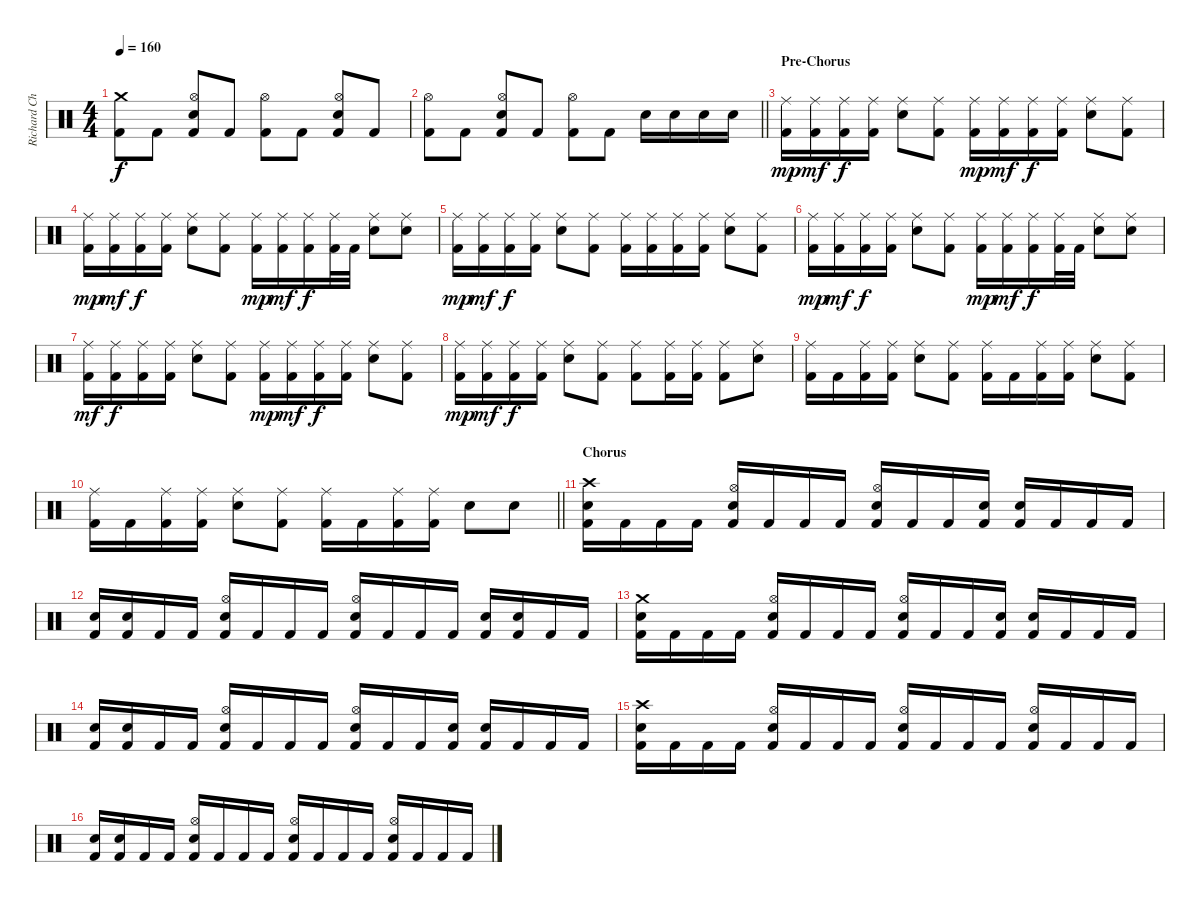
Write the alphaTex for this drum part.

\track ("Richard Christy" "Richard Ch") {instrument percussion}
\staff {score}
\articulation defaults
\ts (4 4)
\tempo 160
\clef neutral
\ks c
("Crash medium (hit)" "Kick (hit) 2").8{dy f} "Kick (hit) 2".8 ("Hi-Hat (open)" "Snare (hit) 2" "Kick (hit) 2").8 "Kick (hit) 2".8 ("Hi-Hat (open)" "Kick (hit) 2").8 "Kick (hit) 2".8 ("Hi-Hat (open)" "Snare (hit) 2" "Kick (hit) 2").8 "Kick (hit) 2".8 |
\barLineRight lightlight
("Hi-Hat (open)" "Kick (hit) 2").8 "Kick (hit) 2".8 ("Hi-Hat (open)" "Snare (hit) 2" "Kick (hit) 2").8 "Kick (hit) 2".8 ("Hi-Hat (open)" "Kick (hit) 2").8 "Kick (hit) 2".8 "Snare (hit) 2".16 "Snare (hit) 2".16 "Snare (hit) 2".16 "Snare (hit) 2".16 |
\section ("" "Pre-Chorus")
("Ride (middle)" "Kick (hit) 2").16{dy mp} ("Ride (middle)" "Kick (hit) 2").16{dy mf} ("Ride (middle)" "Kick (hit) 2").16{dy f} ("Ride (middle)" "Kick (hit) 2").16 ("Ride (middle)" "Snare (hit) 2").8 ("Ride (middle)" "Kick (hit) 2").8 ("Ride (middle)" "Kick (hit) 2").16{dy mp} ("Ride (middle)" "Kick (hit) 2").16{dy mf} ("Ride (middle)" "Kick (hit) 2").16{dy f} ("Ride (middle)" "Kick (hit) 2").16 ("Ride (middle)" "Snare (hit) 2").8 ("Ride (middle)" "Kick (hit) 2").8 |
("Ride (middle)" "Kick (hit) 2").16{dy mp} ("Ride (middle)" "Kick (hit) 2").16{dy mf} ("Ride (middle)" "Kick (hit) 2").16{dy f} ("Ride (middle)" "Kick (hit) 2").16 ("Ride (middle)" "Snare (hit) 2").8 ("Ride (middle)" "Kick (hit) 2").8 ("Ride (middle)" "Kick (hit) 2").16{dy mp} ("Ride (middle)" "Kick (hit) 2").16{dy mf} ("Ride (middle)" "Kick (hit) 2").16{dy f} ("Ride (middle)" "Kick (hit) 2").32 "Kick (hit) 2".32 ("Ride (middle)" "Snare (hit) 2").8 ("Ride (middle)" "Snare (hit) 2").8 |
("Ride (middle)" "Kick (hit) 2").16{dy mp} ("Ride (middle)" "Kick (hit) 2").16{dy mf} ("Ride (middle)" "Kick (hit) 2").16{dy f} ("Ride (middle)" "Kick (hit) 2").16 ("Ride (middle)" "Snare (hit) 2").8 ("Ride (middle)" "Kick (hit) 2").8 ("Ride (middle)" "Kick (hit) 2").16 ("Ride (middle)" "Kick (hit) 2").16 ("Ride (middle)" "Kick (hit) 2").16 ("Ride (middle)" "Kick (hit) 2").16 ("Ride (middle)" "Snare (hit) 2").8 ("Ride (middle)" "Kick (hit) 2").8 |
("Ride (middle)" "Kick (hit) 2").16{dy mp} ("Ride (middle)" "Kick (hit) 2").16{dy mf} ("Ride (middle)" "Kick (hit) 2").16{dy f} ("Ride (middle)" "Kick (hit) 2").16 ("Ride (middle)" "Snare (hit) 2").8 ("Ride (middle)" "Kick (hit) 2").8 ("Ride (middle)" "Kick (hit) 2").16{dy mp} ("Ride (middle)" "Kick (hit) 2").16{dy mf} ("Ride (middle)" "Kick (hit) 2").16{dy f} ("Ride (middle)" "Kick (hit) 2").32 "Kick (hit) 2".32 ("Ride (middle)" "Snare (hit) 2").8 ("Ride (middle)" "Snare (hit) 2").8 |
("Ride (middle)" "Kick (hit) 2").16{dy mf} ("Ride (middle)" "Kick (hit) 2").16{dy f} ("Ride (middle)" "Kick (hit) 2").16 ("Ride (middle)" "Kick (hit) 2").16 ("Ride (middle)" "Snare (hit) 2").8 ("Ride (middle)" "Kick (hit) 2").8 ("Ride (middle)" "Kick (hit) 2").16{dy mp} ("Ride (middle)" "Kick (hit) 2").16{dy mf} ("Ride (middle)" "Kick (hit) 2").16{dy f} ("Ride (middle)" "Kick (hit) 2").16 ("Ride (middle)" "Snare (hit) 2").8 ("Ride (middle)" "Kick (hit) 2").8 |
("Ride (middle)" "Kick (hit) 2").16{dy mp} ("Ride (middle)" "Kick (hit) 2").16{dy mf} ("Ride (middle)" "Kick (hit) 2").16{dy f} ("Ride (middle)" "Kick (hit) 2").16 ("Ride (middle)" "Snare (hit) 2").8 ("Ride (middle)" "Kick (hit) 2").8 ("Ride (middle)" "Kick (hit) 2").8 ("Ride (middle)" "Kick (hit) 2").16 ("Ride (middle)" "Kick (hit) 2").16 ("Ride (middle)" "Kick (hit) 2").8 ("Ride (middle)" "Snare (hit) 2").8 |
("Ride (middle)" "Kick (hit) 2").16 "Kick (hit) 2".16 ("Ride (middle)" "Kick (hit) 2").16 ("Ride (middle)" "Kick (hit) 2").16 ("Ride (middle)" "Snare (hit) 2").8 ("Ride (middle)" "Kick (hit) 2").8 ("Ride (middle)" "Kick (hit) 2").16 "Kick (hit) 2".16 ("Ride (middle)" "Kick (hit) 2").16 ("Ride (middle)" "Kick (hit) 2").16 ("Ride (middle)" "Snare (hit) 2").8 ("Ride (middle)" "Kick (hit) 2").8 |
\barLineRight lightlight
("Ride (middle)" "Kick (hit) 2").16 "Kick (hit) 2".16 ("Ride (middle)" "Kick (hit) 2").16 ("Ride (middle)" "Kick (hit) 2").16 ("Ride (middle)" "Snare (hit) 2").8 ("Ride (middle)" "Kick (hit) 2").8 ("Ride (middle)" "Kick (hit) 2").16 "Kick (hit) 2".16 ("Ride (middle)" "Kick (hit) 2").16 ("Ride (middle)" "Kick (hit) 2").16 "Snare (hit) 2".8 "Snare (hit) 2".8 |
\section ("" "Chorus")
("Crash high (hit)" "Snare (hit) 2" "Kick (hit) 2").16 "Kick (hit) 2".16 "Kick (hit) 2".16 "Kick (hit) 2".16 ("Hi-Hat (open)" "Snare (hit) 2" "Kick (hit) 2").16 "Kick (hit) 2".16 "Kick (hit) 2".16 "Kick (hit) 2".16 ("Hi-Hat (open)" "Snare (hit) 2" "Kick (hit) 2").16 "Kick (hit) 2".16 "Kick (hit) 2".16 ("Snare (hit) 2" "Kick (hit) 2").16 ("Snare (hit) 2" "Kick (hit) 2").16 "Kick (hit) 2".16 "Kick (hit) 2".16 "Kick (hit) 2".16 |
("Snare (hit) 2" "Kick (hit) 2").16 ("Snare (hit) 2" "Kick (hit) 2").16 "Kick (hit) 2".16 "Kick (hit) 2".16 ("Hi-Hat (open)" "Snare (hit) 2" "Kick (hit) 2").16 "Kick (hit) 2".16 "Kick (hit) 2".16 "Kick (hit) 2".16 ("Hi-Hat (open)" "Snare (hit) 2" "Kick (hit) 2").16 "Kick (hit) 2".16 "Kick (hit) 2".16 "Kick (hit) 2".16 ("Snare (hit) 2" "Kick (hit) 2").16 ("Snare (hit) 2" "Kick (hit) 2").16 "Kick (hit) 2".16 "Kick (hit) 2".16 |
("Crash medium (hit)" "Snare (hit) 2" "Kick (hit) 2").16 "Kick (hit) 2".16 "Kick (hit) 2".16 "Kick (hit) 2".16 ("Hi-Hat (open)" "Snare (hit) 2" "Kick (hit) 2").16 "Kick (hit) 2".16 "Kick (hit) 2".16 "Kick (hit) 2".16 ("Hi-Hat (open)" "Snare (hit) 2" "Kick (hit) 2").16 "Kick (hit) 2".16 "Kick (hit) 2".16 ("Snare (hit) 2" "Kick (hit) 2").16 ("Snare (hit) 2" "Kick (hit) 2").16 "Kick (hit) 2".16 "Kick (hit) 2".16 "Kick (hit) 2".16 |
("Snare (hit) 2" "Kick (hit) 2").16 ("Snare (hit) 2" "Kick (hit) 2").16 "Kick (hit) 2".16 "Kick (hit) 2".16 ("Hi-Hat (open)" "Snare (hit) 2" "Kick (hit) 2").16 "Kick (hit) 2".16 "Kick (hit) 2".16 "Kick (hit) 2".16 ("Hi-Hat (open)" "Snare (hit) 2" "Kick (hit) 2").16 "Kick (hit) 2".16 "Kick (hit) 2".16 ("Snare (hit) 2" "Kick (hit) 2").16 ("Snare (hit) 2" "Kick (hit) 2").16 "Kick (hit) 2".16 "Kick (hit) 2".16 "Kick (hit) 2".16 |
("Crash high (hit)" "Snare (hit) 2" "Kick (hit) 2").16 "Kick (hit) 2".16 "Kick (hit) 2".16 "Kick (hit) 2".16 ("Hi-Hat (open)" "Snare (hit) 2" "Kick (hit) 2").16 "Kick (hit) 2".16 "Kick (hit) 2".16 "Kick (hit) 2".16 ("Hi-Hat (open)" "Snare (hit) 2" "Kick (hit) 2").16 "Kick (hit) 2".16 "Kick (hit) 2".16 "Kick (hit) 2".16 ("Hi-Hat (open)" "Snare (hit) 2" "Kick (hit) 2").16 "Kick (hit) 2".16 "Kick (hit) 2".16 "Kick (hit) 2".16 |
("Snare (hit) 2" "Kick (hit) 2").16 ("Snare (hit) 2" "Kick (hit) 2").16 "Kick (hit) 2".16 "Kick (hit) 2".16 ("Hi-Hat (open)" "Snare (hit) 2" "Kick (hit) 2").16 "Kick (hit) 2".16 "Kick (hit) 2".16 "Kick (hit) 2".16 ("Hi-Hat (open)" "Snare (hit) 2" "Kick (hit) 2").16 "Kick (hit) 2".16 "Kick (hit) 2".16 "Kick (hit) 2".16 ("Hi-Hat (open)" "Snare (hit) 2" "Kick (hit) 2").16 "Kick (hit) 2".16 "Kick (hit) 2".16 "Kick (hit) 2".16
